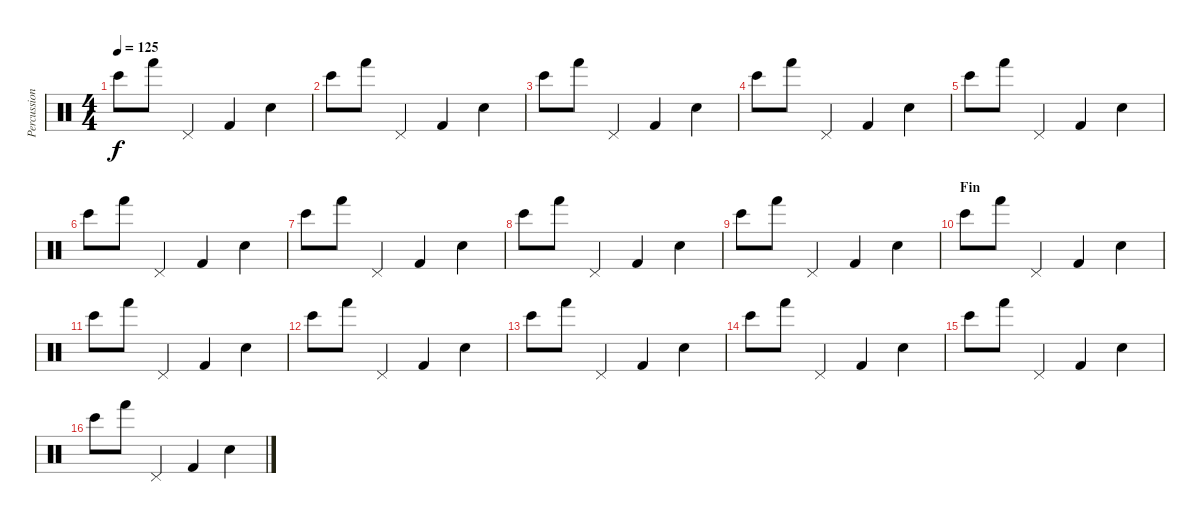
\track ("Percussions" "Percussion") {instrument percussion}
\staff {score}
\articulation defaults
\ts (4 4)
\tempo 125
\clef neutral
\ks c "Bongo High (hit)".8{dy f} "Hand (hit)".8 "Pedal Hi-Hat (hit)".4 "Kick (hit) 2".4 "Electric Snare (hit)".4
|
"Bongo High (hit)".8 "Hand (hit)".8 "Pedal Hi-Hat (hit)".4 "Kick (hit) 2".4 "Electric Snare (hit)".4 |
"Bongo High (hit)".8 "Hand (hit)".8 "Pedal Hi-Hat (hit)".4 "Kick (hit) 2".4 "Electric Snare (hit)".4 |
"Bongo High (hit)".8 "Hand (hit)".8 "Pedal Hi-Hat (hit)".4 "Kick (hit) 2".4 "Electric Snare (hit)".4 |
"Bongo High (hit)".8 "Hand (hit)".8 "Pedal Hi-Hat (hit)".4 "Kick (hit) 2".4 "Electric Snare (hit)".4 |
"Bongo High (hit)".8 "Hand (hit)".8 "Pedal Hi-Hat (hit)".4 "Kick (hit) 2".4 "Electric Snare (hit)".4 |
"Bongo High (hit)".8 "Hand (hit)".8 "Pedal Hi-Hat (hit)".4 "Kick (hit) 2".4 "Electric Snare (hit)".4 |
"Bongo High (hit)".8 "Hand (hit)".8 "Pedal Hi-Hat (hit)".4 "Kick (hit) 2".4 "Electric Snare (hit)".4 |
"Bongo High (hit)".8 "Hand (hit)".8 "Pedal Hi-Hat (hit)".4 "Kick (hit) 2".4 "Electric Snare (hit)".4 |
\section ("" "Fin")
"Bongo High (hit)".8 "Hand (hit)".8 "Pedal Hi-Hat (hit)".4 "Kick (hit) 2".4 "Electric Snare (hit)".4 |
"Bongo High (hit)".8 "Hand (hit)".8 "Pedal Hi-Hat (hit)".4 "Kick (hit) 2".4 "Electric Snare (hit)".4 |
"Bongo High (hit)".8 "Hand (hit)".8 "Pedal Hi-Hat (hit)".4 "Kick (hit) 2".4 "Electric Snare (hit)".4 |
"Bongo High (hit)".8 "Hand (hit)".8 "Pedal Hi-Hat (hit)".4 "Kick (hit) 2".4 "Electric Snare (hit)".4 |
"Bongo High (hit)".8 "Hand (hit)".8 "Pedal Hi-Hat (hit)".4 "Kick (hit) 2".4 "Electric Snare (hit)".4 |
"Bongo High (hit)".8 "Hand (hit)".8 "Pedal Hi-Hat (hit)".4 "Kick (hit) 2".4 "Electric Snare (hit)".4 |
"Bongo High (hit)".8 "Hand (hit)".8 "Pedal Hi-Hat (hit)".4 "Kick (hit) 2".4 "Electric Snare (hit)".4
